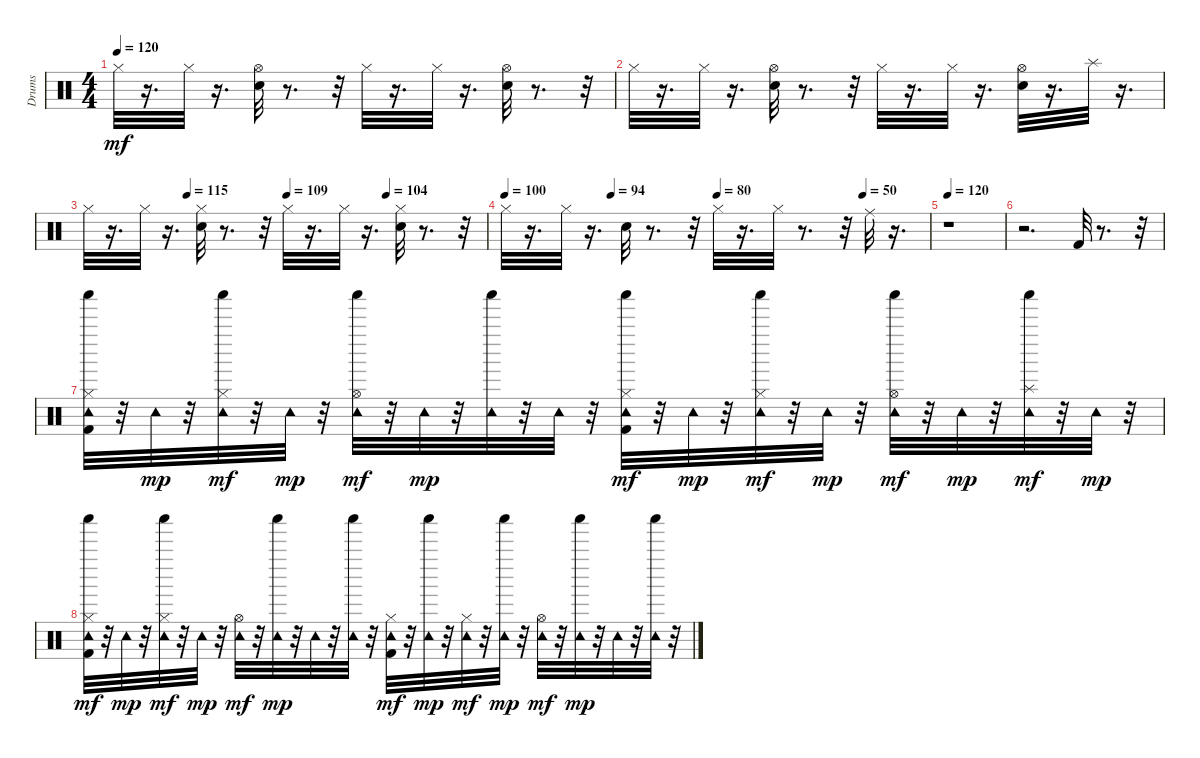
\track ("Drums" "Drums") {instrument percussion}
\staff {score}
\articulation defaults
\ts (4 4)
\tempo 120
\clef neutral
\ks c "Hi-Hat (closed)".32{dy mf}
r.16{d} "Hi-Hat (closed)".32 r.16{d} ("Snare (hit) 2" "Hi-Hat (open)").32 r.8{d} r.32 "Hi-Hat (closed)".32 r.16{d} "Hi-Hat (closed)".32 r.16{d} ("Snare (hit) 2" "Hi-Hat (open)").32 r.8{d} r.32 |
"Hi-Hat (closed)".32 r.16{d} "Hi-Hat (closed)".32 r.16{d} ("Snare (hit) 2" "Hi-Hat (open)").32 r.8{d} r.32 "Hi-Hat (closed)".32 r.16{d} "Hi-Hat (closed)".32 r.16{d} ("Snare (hit) 2" "Hi-Hat (open)").32 r.16{d} "Splash (hit)".32 r.16{d} |
\tempo (115 0.25)
\tempo (109 0.5)
\tempo (104 0.75)
"Hi-Hat (closed)".32 r.16{d} "Hi-Hat (closed)".32 r.16{d} ("Snare (hit) 2" "Hi-Hat (closed)").32 r.8{d} r.32 "Hi-Hat (closed)".32 r.16{d} "Hi-Hat (closed)".32 r.16{d} ("Snare (hit) 2" "Hi-Hat (closed)").32 r.8{d} r.32 |
\tempo 100
\tempo (94 0.25)
\tempo (80 0.5)
\tempo (50 0.84375)
"Hi-Hat (closed)".32 r.16{d} "Hi-Hat (closed)".32 r.16{d} "Snare (hit) 2".32 r.8{d} r.32 "Hi-Hat (closed)".32 r.16{d} "Hi-Hat (closed)".32 r.8{d} r.32 "Ride (middle)".32 r.16{d} |
\tempo 120
r.1 |
r.2{d} "Kick (hit) 2".32 r.8{d} r.32 |
("Kick (hit) 2" "Tambourine (hit)" "Shaker (hit)" "Hi-Hat (closed)").32 r.32 "Tambourine (hit)".32{dy mp} r.32 ("Tambourine (hit)" "Shaker (hit)" "Hi-Hat (closed)").32{dy mf} r.32 "Tambourine (hit)".32{dy mp} r.32 ("Tambourine (hit)" "Shaker (hit)" "Hi-Hat (open)").32{dy mf} r.32 "Tambourine (hit)".32{dy mp} r.32 ("Tambourine (hit)" "Shaker (hit)").32 r.32 "Tambourine (hit)".32 r.32 ("Kick (hit) 2" "Tambourine (hit)" "Shaker (hit)" "Hi-Hat (closed)").32{dy mf} r.32 "Tambourine (hit)".32{dy mp} r.32 ("Tambourine (hit)" "Shaker (hit)" "Hi-Hat (closed)").32{dy mf} r.32 "Tambourine (hit)".32{dy mp} r.32 ("Tambourine (hit)" "Shaker (hit)" "Hi-Hat (open)").32{dy mf} r.32 "Tambourine (hit)".32{dy mp} r.32 ("Tambourine (hit)" "Shaker (hit)" "Splash (hit)").32{dy mf} r.32 "Tambourine (hit)".32{dy mp} r.32 |
("Kick (hit) 2" "Tambourine (hit)" "Shaker (hit)" "Hi-Hat (closed)").32{dy mf} r.32 "Tambourine (hit)".32{dy mp} r.32 ("Tambourine (hit)" "Shaker (hit)" "Hi-Hat (closed)").32{dy mf} r.32 "Tambourine (hit)".32{dy mp} r.32 ("Tambourine (hit)" "Hi-Hat (open)").32{dy mf} r.32 ("Tambourine (hit)" "Shaker (hit)").32{dy mp} r.32 "Tambourine (hit)".32 r.32 ("Tambourine (hit)" "Shaker (hit)").32 r.32 ("Kick (hit) 2" "Tambourine (hit)" "Hi-Hat (closed)").32{dy mf} r.32 ("Tambourine (hit)" "Shaker (hit)").32{dy mp} r.32 ("Tambourine (hit)" "Hi-Hat (closed)").32{dy mf} r.32 ("Tambourine (hit)" "Shaker (hit)").32{dy mp} r.32 ("Tambourine (hit)" "Hi-Hat (open)").32{dy mf} r.32 ("Tambourine (hit)" "Shaker (hit)").32{dy mp} r.32 "Tambourine (hit)".32 r.32 ("Tambourine (hit)" "Shaker (hit)").32 r.32
